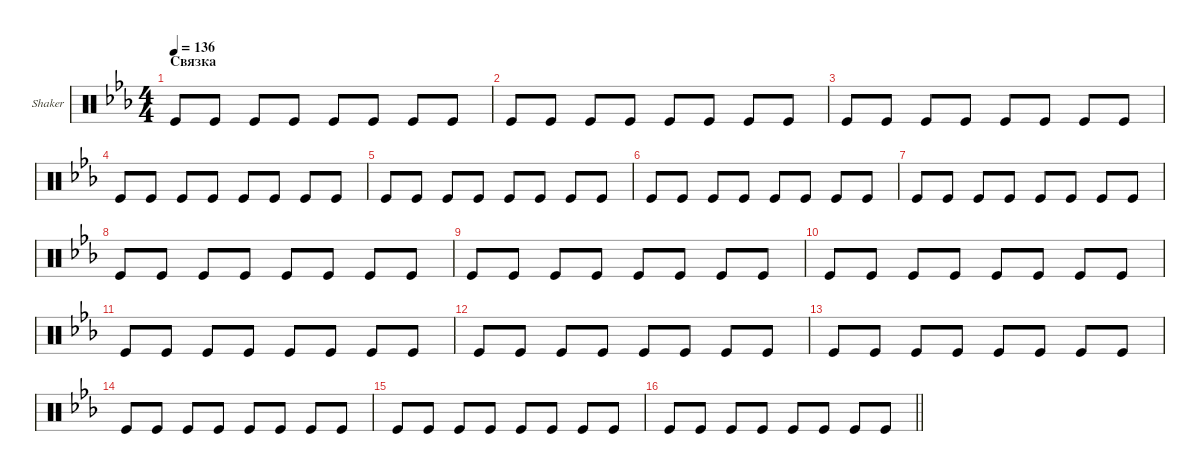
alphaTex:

\defaultSystemsLayout 4
\hideDynamics
\bracketExtendMode groupsimilarinstruments
\multiTrackTrackNamePolicy allsystems
\firstSystemTrackNameOrientation horizontal
\otherSystemsTrackNameOrientation horizontal
\track ("Shaker" "Shaker") {instrument percussion}
\staff {score}
\articulation defaults
\ts (4 4)
\section ("" "Связка")
\tempo 136
\clef neutral
\scale
0.333333
\ks cminor "Kick (hit)".8{dy mf} "Kick (hit)".8 "Kick (hit)".8 "Kick (hit)".8 "Kick (hit)".8 "Kick (hit)".8 "Kick (hit)".8 "Kick (hit)".8
|
\scale
0.333333 "Kick (hit)".8 "Kick (hit)".8 "Kick (hit)".8 "Kick (hit)".8 "Kick (hit)".8 "Kick (hit)".8 "Kick (hit)".8 "Kick (hit)".8 |
\scale
0.333333 "Kick (hit)".8 "Kick (hit)".8 "Kick (hit)".8 "Kick (hit)".8 "Kick (hit)".8 "Kick (hit)".8 "Kick (hit)".8 "Kick (hit)".8 |
\scale
0.333333 "Kick (hit)".8 "Kick (hit)".8 "Kick (hit)".8 "Kick (hit)".8 "Kick (hit)".8 "Kick (hit)".8 "Kick (hit)".8 "Kick (hit)".8 |
\scale
0.333333 "Kick (hit)".8 "Kick (hit)".8 "Kick (hit)".8 "Kick (hit)".8 "Kick (hit)".8 "Kick (hit)".8 "Kick (hit)".8 "Kick (hit)".8 |
\scale
0.333333 "Kick (hit)".8 "Kick (hit)".8 "Kick (hit)".8 "Kick (hit)".8 "Kick (hit)".8 "Kick (hit)".8 "Kick (hit)".8 "Kick (hit)".8 |
\scale
0.333333 "Kick (hit)".8 "Kick (hit)".8 "Kick (hit)".8 "Kick (hit)".8 "Kick (hit)".8 "Kick (hit)".8 "Kick (hit)".8 "Kick (hit)".8 |
\scale
0.333333 "Kick (hit)".8 "Kick (hit)".8 "Kick (hit)".8 "Kick (hit)".8 "Kick (hit)".8 "Kick (hit)".8 "Kick (hit)".8 "Kick (hit)".8 |
\scale
0.333333 "Kick (hit)".8 "Kick (hit)".8 "Kick (hit)".8 "Kick (hit)".8 "Kick (hit)".8 "Kick (hit)".8 "Kick (hit)".8 "Kick (hit)".8 |
\scale
0.333333 "Kick (hit)".8 "Kick (hit)".8 "Kick (hit)".8 "Kick (hit)".8 "Kick (hit)".8 "Kick (hit)".8 "Kick (hit)".8 "Kick (hit)".8 |
\scale
0.333333 "Kick (hit)".8 "Kick (hit)".8 "Kick (hit)".8 "Kick (hit)".8 "Kick (hit)".8 "Kick (hit)".8 "Kick (hit)".8 "Kick (hit)".8 |
\scale
0.333333 "Kick (hit)".8 "Kick (hit)".8 "Kick (hit)".8 "Kick (hit)".8 "Kick (hit)".8 "Kick (hit)".8 "Kick (hit)".8 "Kick (hit)".8 |
\scale
0.333333 "Kick (hit)".8 "Kick (hit)".8 "Kick (hit)".8 "Kick (hit)".8 "Kick (hit)".8 "Kick (hit)".8 "Kick (hit)".8 "Kick (hit)".8 |
\scale
0.333333 "Kick (hit)".8 "Kick (hit)".8 "Kick (hit)".8 "Kick (hit)".8 "Kick (hit)".8 "Kick (hit)".8 "Kick (hit)".8 "Kick (hit)".8 |
\scale
0.333333 "Kick (hit)".8 "Kick (hit)".8 "Kick (hit)".8 "Kick (hit)".8 "Kick (hit)".8 "Kick (hit)".8 "Kick (hit)".8 "Kick (hit)".8 |
\scale
0.197103
\barLineRight lightlight "Kick (hit)".8 "Kick (hit)".8 "Kick (hit)".8 "Kick (hit)".8 "Kick (hit)".8 "Kick (hit)".8 "Kick (hit)".8 "Kick (hit)".8
